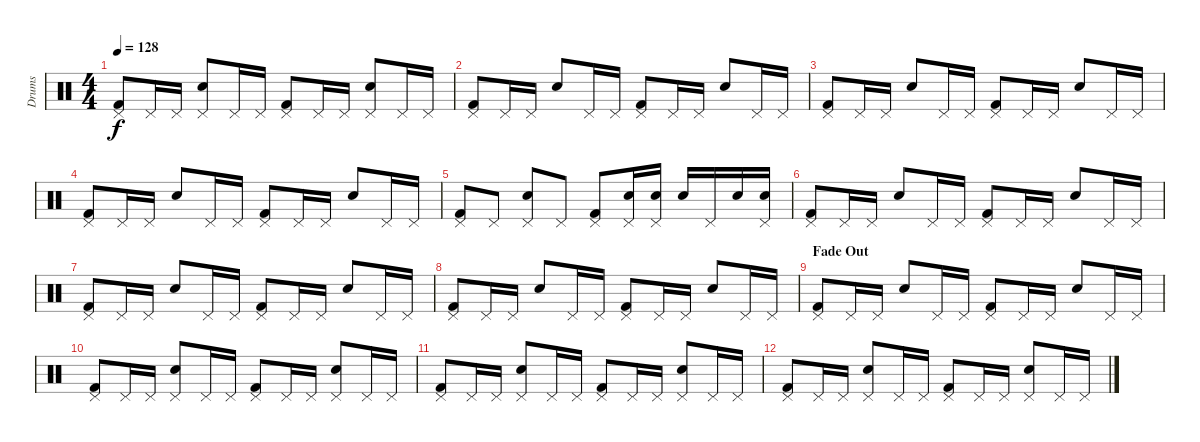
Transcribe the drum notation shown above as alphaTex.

\track ("Drums" "Drums") {instrument percussion}
\staff {score}
\articulation defaults
\ts (4 4)
\tempo 128
\clef neutral
\ks c
("Pedal Hi-Hat (hit)" "Kick (hit) 2").8{dy f} "Pedal Hi-Hat (hit)".16 "Pedal Hi-Hat (hit)".16 ("Pedal Hi-Hat (hit)" "Snare (hit) 2").8 "Pedal Hi-Hat (hit)".16 "Pedal Hi-Hat (hit)".16 ("Pedal Hi-Hat (hit)" "Kick (hit) 2").8 "Pedal Hi-Hat (hit)".16 "Pedal Hi-Hat (hit)".16 ("Pedal Hi-Hat (hit)" "Snare (hit) 2").8 "Pedal Hi-Hat (hit)".16 "Pedal Hi-Hat (hit)".16 |
("Pedal Hi-Hat (hit)" "Kick (hit) 2").8 "Pedal Hi-Hat (hit)".16 "Pedal Hi-Hat (hit)".16 "Snare (hit) 2".8 "Pedal Hi-Hat (hit)".16 "Pedal Hi-Hat (hit)".16 ("Pedal Hi-Hat (hit)" "Kick (hit) 2").8 "Pedal Hi-Hat (hit)".16 "Pedal Hi-Hat (hit)".16 "Snare (hit) 2".8 "Pedal Hi-Hat (hit)".16 "Pedal Hi-Hat (hit)".16 |
("Pedal Hi-Hat (hit)" "Kick (hit) 2").8 "Pedal Hi-Hat (hit)".16 "Pedal Hi-Hat (hit)".16 "Snare (hit) 2".8 "Pedal Hi-Hat (hit)".16 "Pedal Hi-Hat (hit)".16 ("Pedal Hi-Hat (hit)" "Kick (hit) 2").8 "Pedal Hi-Hat (hit)".16 "Pedal Hi-Hat (hit)".16 "Snare (hit) 2".8 "Pedal Hi-Hat (hit)".16 "Pedal Hi-Hat (hit)".16 |
("Pedal Hi-Hat (hit)" "Kick (hit) 2").8 "Pedal Hi-Hat (hit)".16 "Pedal Hi-Hat (hit)".16 "Snare (hit) 2".8 "Pedal Hi-Hat (hit)".16 "Pedal Hi-Hat (hit)".16 ("Pedal Hi-Hat (hit)" "Kick (hit) 2").8 "Pedal Hi-Hat (hit)".16 "Pedal Hi-Hat (hit)".16 "Snare (hit) 2".8 "Pedal Hi-Hat (hit)".16 "Pedal Hi-Hat (hit)".16 |
("Pedal Hi-Hat (hit)" "Kick (hit) 2").8{volume 12} "Pedal Hi-Hat (hit)".8 ("Pedal Hi-Hat (hit)" "Snare (hit) 2").8 "Pedal Hi-Hat (hit)".8 ("Pedal Hi-Hat (hit)" "Kick (hit) 2").8 ("Pedal Hi-Hat (hit)" "Snare (hit) 2").16 ("Pedal Hi-Hat (hit)" "Snare (hit) 2").16 "Snare (hit) 2".16 "Pedal Hi-Hat (hit)".16 "Snare (hit) 2".16 ("Pedal Hi-Hat (hit)" "Snare (hit) 2").16 |
("Pedal Hi-Hat (hit)" "Kick (hit) 2").8{volume 11} "Pedal Hi-Hat (hit)".16 "Pedal Hi-Hat (hit)".16 "Snare (hit) 2".8 "Pedal Hi-Hat (hit)".16 "Pedal Hi-Hat (hit)".16 ("Pedal Hi-Hat (hit)" "Kick (hit) 2").8 "Pedal Hi-Hat (hit)".16 "Pedal Hi-Hat (hit)".16 "Snare (hit) 2".8 "Pedal Hi-Hat (hit)".16 "Pedal Hi-Hat (hit)".16 |
("Pedal Hi-Hat (hit)" "Kick (hit) 2").8 "Pedal Hi-Hat (hit)".16 "Pedal Hi-Hat (hit)".16 "Snare (hit) 2".8 "Pedal Hi-Hat (hit)".16 "Pedal Hi-Hat (hit)".16 ("Pedal Hi-Hat (hit)" "Kick (hit) 2").8 "Pedal Hi-Hat (hit)".16 "Pedal Hi-Hat (hit)".16 "Snare (hit) 2".8 "Pedal Hi-Hat (hit)".16 "Pedal Hi-Hat (hit)".16 |
("Pedal Hi-Hat (hit)" "Kick (hit) 2").8 "Pedal Hi-Hat (hit)".16 "Pedal Hi-Hat (hit)".16 "Snare (hit) 2".8 "Pedal Hi-Hat (hit)".16 "Pedal Hi-Hat (hit)".16 ("Pedal Hi-Hat (hit)" "Kick (hit) 2").8 "Pedal Hi-Hat (hit)".16 "Pedal Hi-Hat (hit)".16 "Snare (hit) 2".8 "Pedal Hi-Hat (hit)".16 "Pedal Hi-Hat (hit)".16 |
\section ("" "Fade Out")
("Pedal Hi-Hat (hit)" "Kick (hit) 2").8{volume 0} "Pedal Hi-Hat (hit)".16 "Pedal Hi-Hat (hit)".16 "Snare (hit) 2".8 "Pedal Hi-Hat (hit)".16 "Pedal Hi-Hat (hit)".16 ("Pedal Hi-Hat (hit)" "Kick (hit) 2").8 "Pedal Hi-Hat (hit)".16 "Pedal Hi-Hat (hit)".16 "Snare (hit) 2".8 "Pedal Hi-Hat (hit)".16 "Pedal Hi-Hat (hit)".16 |
("Pedal Hi-Hat (hit)" "Kick (hit) 2").8 "Pedal Hi-Hat (hit)".16 "Pedal Hi-Hat (hit)".16 ("Pedal Hi-Hat (hit)" "Snare (hit) 2").8 "Pedal Hi-Hat (hit)".16 "Pedal Hi-Hat (hit)".16 ("Pedal Hi-Hat (hit)" "Kick (hit) 2").8 "Pedal Hi-Hat (hit)".16 "Pedal Hi-Hat (hit)".16 ("Pedal Hi-Hat (hit)" "Snare (hit) 2").8 "Pedal Hi-Hat (hit)".16 "Pedal Hi-Hat (hit)".16 |
("Pedal Hi-Hat (hit)" "Kick (hit) 2").8 "Pedal Hi-Hat (hit)".16 "Pedal Hi-Hat (hit)".16 ("Pedal Hi-Hat (hit)" "Snare (hit) 2").8 "Pedal Hi-Hat (hit)".16 "Pedal Hi-Hat (hit)".16 ("Pedal Hi-Hat (hit)" "Kick (hit) 2").8 "Pedal Hi-Hat (hit)".16 "Pedal Hi-Hat (hit)".16 ("Pedal Hi-Hat (hit)" "Snare (hit) 2").8 "Pedal Hi-Hat (hit)".16 "Pedal Hi-Hat (hit)".16 |
("Pedal Hi-Hat (hit)" "Kick (hit) 2").8 "Pedal Hi-Hat (hit)".16 "Pedal Hi-Hat (hit)".16 ("Pedal Hi-Hat (hit)" "Snare (hit) 2").8 "Pedal Hi-Hat (hit)".16 "Pedal Hi-Hat (hit)".16 ("Pedal Hi-Hat (hit)" "Kick (hit) 2").8 "Pedal Hi-Hat (hit)".16 "Pedal Hi-Hat (hit)".16 ("Pedal Hi-Hat (hit)" "Snare (hit) 2").8 "Pedal Hi-Hat (hit)".16 "Pedal Hi-Hat (hit)".16
